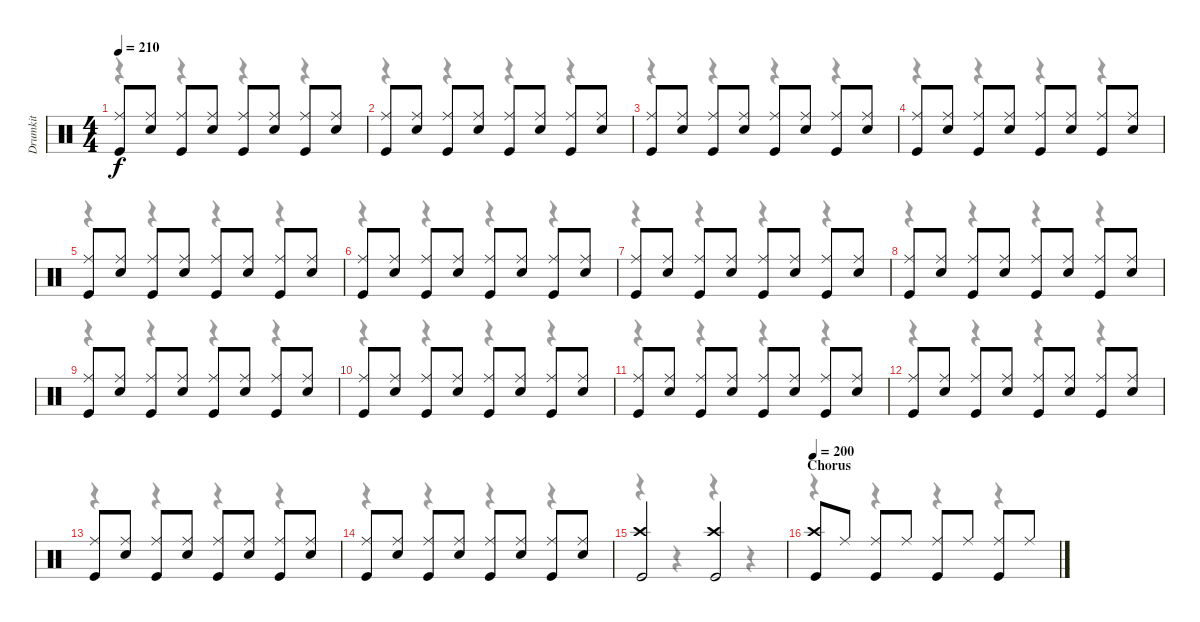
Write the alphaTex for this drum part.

\track ("Drumkit" "Drumkit") {instrument percussion}
\staff {score}
\articulation defaults
\voice
\ts (4 4)
\tempo 210
\clef neutral
\ks c
("Ride (middle)" "Kick (hit)").8{dy f} ("Ride (middle)" "Snare (hit) 2").8 ("Ride (middle)" "Kick (hit)").8 ("Ride (middle)" "Snare (hit) 2").8 ("Ride (middle)" "Kick (hit)").8 ("Ride (middle)" "Snare (hit) 2").8 ("Ride (middle)" "Kick (hit)").8 ("Ride (middle)" "Snare (hit) 2").8 |
("Ride (middle)" "Kick (hit)").8 ("Ride (middle)" "Snare (hit) 2").8 ("Ride (middle)" "Kick (hit)").8 ("Ride (middle)" "Snare (hit) 2").8 ("Ride (middle)" "Kick (hit)").8 ("Ride (middle)" "Snare (hit) 2").8 ("Ride (middle)" "Kick (hit)").8 ("Ride (middle)" "Snare (hit) 2").8 |
("Ride (middle)" "Kick (hit)").8 ("Ride (middle)" "Snare (hit) 2").8 ("Ride (middle)" "Kick (hit)").8 ("Ride (middle)" "Snare (hit) 2").8 ("Ride (middle)" "Kick (hit)").8 ("Ride (middle)" "Snare (hit) 2").8 ("Ride (middle)" "Kick (hit)").8 ("Ride (middle)" "Snare (hit) 2").8 |
("Ride (middle)" "Kick (hit)").8 ("Ride (middle)" "Snare (hit) 2").8 ("Ride (middle)" "Kick (hit)").8 ("Ride (middle)" "Snare (hit) 2").8 ("Ride (middle)" "Kick (hit)").8 ("Ride (middle)" "Snare (hit) 2").8 ("Ride (middle)" "Kick (hit)").8 ("Ride (middle)" "Snare (hit) 2").8 |
("Ride (middle)" "Kick (hit)").8 ("Ride (middle)" "Snare (hit) 2").8 ("Ride (middle)" "Kick (hit)").8 ("Ride (middle)" "Snare (hit) 2").8 ("Ride (middle)" "Kick (hit)").8 ("Ride (middle)" "Snare (hit) 2").8 ("Ride (middle)" "Kick (hit)").8 ("Ride (middle)" "Snare (hit) 2").8 |
("Ride (middle)" "Kick (hit)").8 ("Ride (middle)" "Snare (hit) 2").8 ("Ride (middle)" "Kick (hit)").8 ("Ride (middle)" "Snare (hit) 2").8 ("Ride (middle)" "Kick (hit)").8 ("Ride (middle)" "Snare (hit) 2").8 ("Ride (middle)" "Kick (hit)").8 ("Ride (middle)" "Snare (hit) 2").8 |
("Ride (middle)" "Kick (hit)").8 ("Ride (middle)" "Snare (hit) 2").8 ("Ride (middle)" "Kick (hit)").8 ("Ride (middle)" "Snare (hit) 2").8 ("Ride (middle)" "Kick (hit)").8 ("Ride (middle)" "Snare (hit) 2").8 ("Ride (middle)" "Kick (hit)").8 ("Ride (middle)" "Snare (hit) 2").8 |
("Ride (middle)" "Kick (hit)").8 ("Ride (middle)" "Snare (hit) 2").8 ("Ride (middle)" "Kick (hit)").8 ("Ride (middle)" "Snare (hit) 2").8 ("Ride (middle)" "Kick (hit)").8 ("Ride (middle)" "Snare (hit) 2").8 ("Ride (middle)" "Kick (hit)").8 ("Ride (middle)" "Snare (hit) 2").8 |
("Ride (middle)" "Kick (hit)").8 ("Ride (middle)" "Snare (hit) 2").8 ("Ride (middle)" "Kick (hit)").8 ("Ride (middle)" "Snare (hit) 2").8 ("Ride (middle)" "Kick (hit)").8 ("Ride (middle)" "Snare (hit) 2").8 ("Ride (middle)" "Kick (hit)").8 ("Ride (middle)" "Snare (hit) 2").8 |
("Ride (middle)" "Kick (hit)").8 ("Ride (middle)" "Snare (hit) 2").8 ("Ride (middle)" "Kick (hit)").8 ("Ride (middle)" "Snare (hit) 2").8 ("Ride (middle)" "Kick (hit)").8 ("Ride (middle)" "Snare (hit) 2").8 ("Ride (middle)" "Kick (hit)").8 ("Ride (middle)" "Snare (hit) 2").8 |
("Ride (middle)" "Kick (hit)").8 ("Ride (middle)" "Snare (hit) 2").8 ("Ride (middle)" "Kick (hit)").8 ("Ride (middle)" "Snare (hit) 2").8 ("Ride (middle)" "Kick (hit)").8 ("Ride (middle)" "Snare (hit) 2").8 ("Ride (middle)" "Kick (hit)").8 ("Ride (middle)" "Snare (hit) 2").8 |
("Ride (middle)" "Kick (hit)").8 ("Ride (middle)" "Snare (hit) 2").8 ("Ride (middle)" "Kick (hit)").8 ("Ride (middle)" "Snare (hit) 2").8 ("Ride (middle)" "Kick (hit)").8 ("Ride (middle)" "Snare (hit) 2").8 ("Ride (middle)" "Kick (hit)").8 ("Ride (middle)" "Snare (hit) 2").8 |
("Ride (middle)" "Kick (hit)").8 ("Ride (middle)" "Snare (hit) 2").8 ("Ride (middle)" "Kick (hit)").8 ("Ride (middle)" "Snare (hit) 2").8 ("Ride (middle)" "Kick (hit)").8 ("Ride (middle)" "Snare (hit) 2").8 ("Ride (middle)" "Kick (hit)").8 ("Ride (middle)" "Snare (hit) 2").8 |
("Ride (middle)" "Kick (hit)").8 ("Ride (middle)" "Snare (hit) 2").8 ("Ride (middle)" "Kick (hit)").8 ("Ride (middle)" "Snare (hit) 2").8 ("Ride (middle)" "Kick (hit)").8 ("Ride (middle)" "Snare (hit) 2").8 ("Ride (middle)" "Kick (hit)").8 ("Ride (middle)" "Snare (hit) 2").8 |
("Crash high (hit)" "Kick (hit)").2 ("Crash high (hit)" "Kick (hit)").2 |
\section ("" "Chorus")
\tempo 200
("Crash high (hit)" "Kick (hit)").8 "Ride (middle)".8 ("Ride (middle)" "Kick (hit)").8 "Ride (middle)".8 ("Ride (middle)" "Kick (hit)").8 "Ride (middle)".8 ("Ride (middle)" "Kick (hit)").8 "Ride (middle)".8
\voice
\clef neutral
\ottava regular
\simile none
\ks c
r.4{dy f} r.4 r.4 r.4 |
r.4 r.4 r.4 r.4 |
r.4 r.4 r.4 r.4 |
r.4 r.4 r.4 r.4 |
r.4 r.4 r.4 r.4 |
r.4 r.4 r.4 r.4 |
r.4 r.4 r.4 r.4 |
r.4 r.4 r.4 r.4 |
r.4 r.4 r.4 r.4 |
r.4 r.4 r.4 r.4 |
r.4 r.4 r.4 r.4 |
r.4 r.4 r.4 r.4 |
r.4 r.4 r.4 r.4 |
r.4 r.4 r.4 r.4 |
r.4 r.4 r.4 r.4 |
r.4 r.4 r.4 r.4
